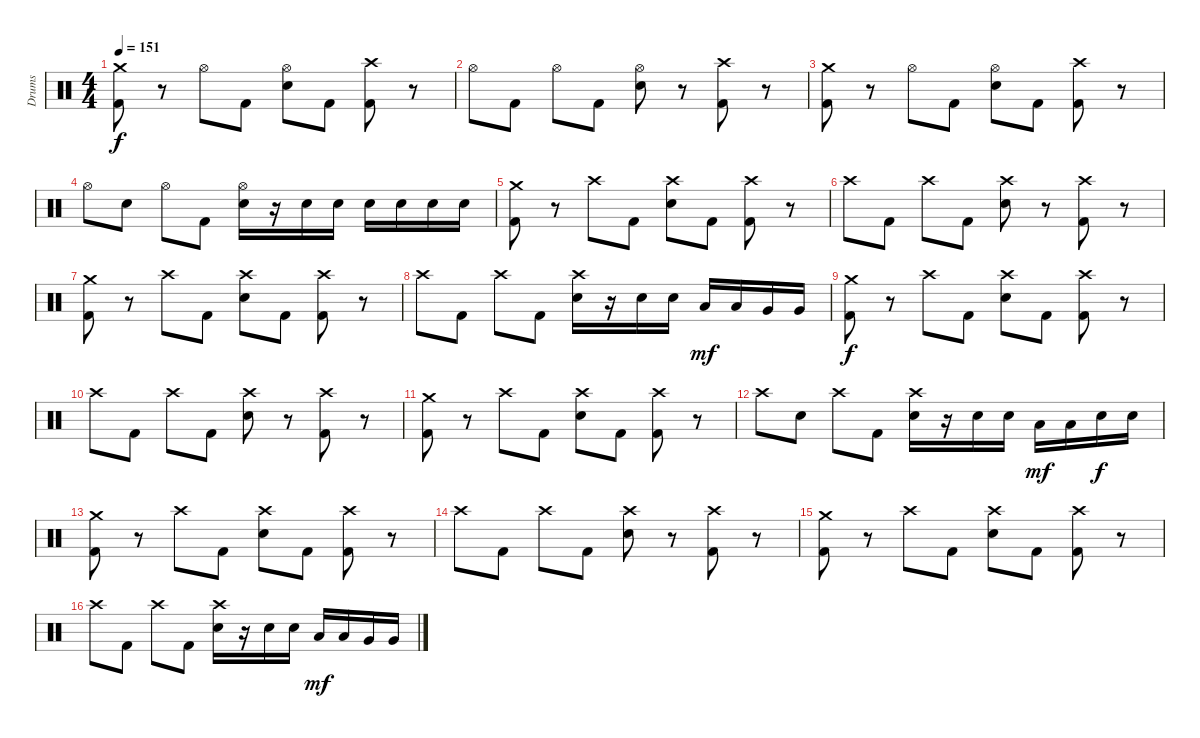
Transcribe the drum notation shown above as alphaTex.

\track ("Drums" "Drums") {instrument percussion}
\staff {score}
\articulation defaults
\ts (4 4)
\tempo 151
\clef neutral
\ks c
("Crash medium (hit)" "Kick (hit) 2").8{dy f} r.8 "Hi-Hat (open)".8 "Kick (hit) 2".8 ("Hi-Hat (open)" "Snare (hit) 2").8 "Kick (hit) 2".8 ("Crash high (hit)" "Kick (hit) 2").8 r.8 |
"Hi-Hat (open)".8 "Kick (hit) 2".8 "Hi-Hat (open)".8 "Kick (hit) 2".8 ("Hi-Hat (open)" "Snare (hit) 2").8 r.8 ("Crash high (hit)" "Kick (hit) 2").8 r.8 |
("Crash medium (hit)" "Kick (hit) 2").8 r.8 "Hi-Hat (open)".8 "Kick (hit) 2".8 ("Hi-Hat (open)" "Snare (hit) 2").8 "Kick (hit) 2".8 ("Crash high (hit)" "Kick (hit) 2").8 r.8 |
"Hi-Hat (open)".8 "Snare (hit) 2".8 "Hi-Hat (open)".8 "Kick (hit) 2".8 ("Hi-Hat (open)" "Snare (hit) 2").16 r.16 "Snare (hit) 2".16 "Snare (hit) 2".16 "Snare (hit) 2".16 "Snare (hit) 2".16 "Snare (hit) 2".16 "Snare (hit) 2".16 |
("Crash medium (hit)" "Kick (hit) 2").8 r.8 "Crash high (hit)".8 "Kick (hit) 2".8 ("Crash high (hit)" "Snare (hit) 2").8 "Kick (hit) 2".8 ("Crash high (hit)" "Kick (hit) 2").8 r.8 |
"Crash high (hit)".8 "Kick (hit) 2".8 "Crash high (hit)".8 "Kick (hit) 2".8 ("Crash high (hit)" "Snare (hit) 2").8 r.8 ("Crash high (hit)" "Kick (hit) 2").8 r.8 |
("Crash medium (hit)" "Kick (hit) 2").8 r.8 "Crash high (hit)".8 "Kick (hit) 2".8 ("Crash high (hit)" "Snare (hit) 2").8 "Kick (hit) 2".8 ("Crash high (hit)" "Kick (hit) 2").8 r.8 |
"Crash high (hit)".8 "Kick (hit) 2".8 "Crash high (hit)".8 "Kick (hit) 2".8 ("Crash high (hit)" "Snare (hit) 2").16 r.16 "Snare (hit) 2".16 "Snare (hit) 2".16 "Low Tom (hit)".16{dy mf} "Low Tom (hit)".16 "Very Low Tom (hit)".16 "Very Low Tom (hit)".16 |
("Crash medium (hit)" "Kick (hit) 2").8{dy f} r.8 "Crash high (hit)".8 "Kick (hit) 2".8 ("Crash high (hit)" "Snare (hit) 2").8 "Kick (hit) 2".8 ("Crash high (hit)" "Kick (hit) 2").8 r.8 |
"Crash high (hit)".8 "Kick (hit) 2".8 "Crash high (hit)".8 "Kick (hit) 2".8 ("Crash high (hit)" "Snare (hit) 2").8 r.8 ("Crash high (hit)" "Kick (hit) 2").8 r.8 |
("Crash medium (hit)" "Kick (hit) 2").8 r.8 "Crash high (hit)".8 "Kick (hit) 2".8 ("Crash high (hit)" "Snare (hit) 2").8 "Kick (hit) 2".8 ("Crash high (hit)" "Kick (hit) 2").8 r.8 |
"Crash high (hit)".8 "Snare (hit) 2".8 "Crash high (hit)".8 "Kick (hit) 2".8 ("Crash high (hit)" "Snare (hit) 2").16 r.16 "Snare (hit) 2".16 "Snare (hit) 2".16 "Low Tom (hit)".16{dy mf} "Low Tom (hit)".16 "Snare (hit) 2".16{dy f} "Snare (hit) 2".16 |
("Crash medium (hit)" "Kick (hit) 2").8 r.8 "Crash high (hit)".8 "Kick (hit) 2".8 ("Crash high (hit)" "Snare (hit) 2").8 "Kick (hit) 2".8 ("Crash high (hit)" "Kick (hit) 2").8 r.8 |
"Crash high (hit)".8 "Kick (hit) 2".8 "Crash high (hit)".8 "Kick (hit) 2".8 ("Crash high (hit)" "Snare (hit) 2").8 r.8 ("Crash high (hit)" "Kick (hit) 2").8 r.8 |
("Crash medium (hit)" "Kick (hit) 2").8 r.8 "Crash high (hit)".8 "Kick (hit) 2".8 ("Crash high (hit)" "Snare (hit) 2").8 "Kick (hit) 2".8 ("Crash high (hit)" "Kick (hit) 2").8 r.8 |
"Crash high (hit)".8 "Kick (hit) 2".8 "Crash high (hit)".8 "Kick (hit) 2".8 ("Crash high (hit)" "Snare (hit) 2").16 r.16 "Snare (hit) 2".16 "Snare (hit) 2".16 "Low Tom (hit)".16{dy mf} "Low Tom (hit)".16 "Very Low Tom (hit)".16 "Very Low Tom (hit)".16
